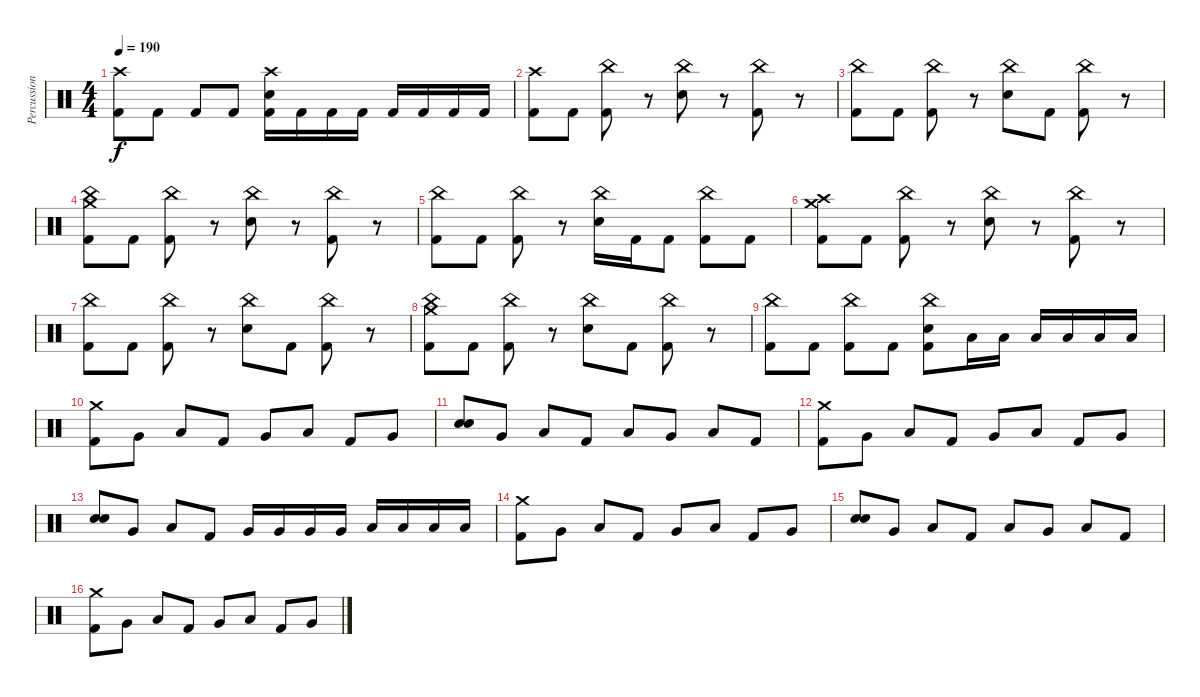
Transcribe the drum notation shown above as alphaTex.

\track ("Percussion" "Percussion") {instrument percussion}
\staff {score}
\articulation defaults
\ts (4 4)
\tempo 190
\clef neutral
\ks c
("Crash high (hit)" "Kick (hit) 2").8{dy f} "Kick (hit) 2".8 "Kick (hit) 2".8 "Kick (hit) 2".8 ("Crash high (hit)" "Electric Snare (hit)" "Kick (hit) 2").16 "Kick (hit) 2".16 "Kick (hit) 2".16 "Kick (hit) 2".16 "Kick (hit) 2".16 "Kick (hit) 2".16 "Kick (hit) 2".16 "Kick (hit) 2".16 |
("Crash high (hit)" "Kick (hit) 2").8 "Kick (hit) 2".8 ("China (hit)" "Kick (hit) 2").8 r.8 ("China (hit)" "Electric Snare (hit)").8 r.8 ("China (hit)" "Kick (hit) 2").8 r.8 |
("China (hit)" "Kick (hit) 2").8 "Kick (hit) 2".8 ("China (hit)" "Kick (hit) 2").8 r.8 ("China (hit)" "Electric Snare (hit)").8 "Kick (hit) 2".8 ("China (hit)" "Kick (hit) 2").8 r.8 |
("China (hit)" "Crash medium (hit)" "Kick (hit) 2").8 "Kick (hit) 2".8 ("China (hit)" "Kick (hit) 2").8 r.8 ("China (hit)" "Electric Snare (hit)").8 r.8 ("China (hit)" "Kick (hit) 2").8 r.8 |
("China (hit)" "Kick (hit) 2").8 "Kick (hit) 2".8 ("China (hit)" "Kick (hit) 2").8 r.8 ("China (hit)" "Electric Snare (hit)").16 "Kick (hit) 2".16 "Kick (hit) 2".8 ("China (hit)" "Kick (hit) 2").8 "Kick (hit) 2".8 |
("Crash high (hit)" "Crash medium (hit)" "Kick (hit) 2").8 "Kick (hit) 2".8 ("China (hit)" "Kick (hit) 2").8 r.8 ("China (hit)" "Electric Snare (hit)").8 r.8 ("China (hit)" "Kick (hit) 2").8 r.8 |
("China (hit)" "Kick (hit) 2").8 "Kick (hit) 2".8 ("China (hit)" "Kick (hit) 2").8 r.8 ("China (hit)" "Electric Snare (hit)").8 "Kick (hit) 2".8 ("China (hit)" "Kick (hit) 2").8 r.8 |
("China (hit)" "Crash medium (hit)" "Kick (hit) 2").8 "Kick (hit) 2".8 ("China (hit)" "Kick (hit) 2").8 r.8 ("China (hit)" "Electric Snare (hit)").8 "Kick (hit) 2".8 ("China (hit)" "Kick (hit) 2").8 r.8 |
("China (hit)" "Kick (hit) 2").8 "Kick (hit) 2".8 ("China (hit)" "Kick (hit) 2").8 "Kick (hit) 2".8 ("China (hit)" "Electric Snare (hit)" "Kick (hit) 2").8 "Low Tom (hit)".16 "Low Tom (hit)".16 "Low Tom (hit)".16 "Low Floor Tom (hit)".16 "Low Floor Tom (hit)".16 "Low Floor Tom (hit)".16 |
("Crash medium (hit)" "Kick (hit) 2").8 "Very Low Tom (hit)".8 "Low Floor Tom (hit)".8 "Kick (hit) 2".8 "Very Low Tom (hit)".8 "Low Floor Tom (hit)".8 "Kick (hit) 2".8 "Very Low Tom (hit)".8 |
("Electric Snare (hit)" "Snare (hit) 2").8 "Very Low Tom (hit)".8 "Low Floor Tom (hit)".8 "Kick (hit) 2".8 "Low Floor Tom (hit)".8 "Very Low Tom (hit)".8 "Low Floor Tom (hit)".8 "Kick (hit) 2".8 |
("Crash medium (hit)" "Kick (hit) 2").8 "Very Low Tom (hit)".8 "Low Floor Tom (hit)".8 "Kick (hit) 2".8 "Very Low Tom (hit)".8 "Low Floor Tom (hit)".8 "Kick (hit) 2".8 "Very Low Tom (hit)".8 |
("Electric Snare (hit)" "Snare (hit) 2").8 "Very Low Tom (hit)".8 "Low Floor Tom (hit)".8 "Kick (hit) 2".8 "Very Low Tom (hit)".16 "Very Low Tom (hit)".16 "Very Low Tom (hit)".16 "Very Low Tom (hit)".16 "Low Floor Tom (hit)".16 "Low Floor Tom (hit)".16 "Low Floor Tom (hit)".16 "Low Floor Tom (hit)".16 |
("Crash medium (hit)" "Kick (hit) 2").8 "Very Low Tom (hit)".8 "Low Floor Tom (hit)".8 "Kick (hit) 2".8 "Very Low Tom (hit)".8 "Low Floor Tom (hit)".8 "Kick (hit) 2".8 "Very Low Tom (hit)".8 |
("Electric Snare (hit)" "Snare (hit) 2").8 "Very Low Tom (hit)".8 "Low Floor Tom (hit)".8 "Kick (hit) 2".8 "Low Floor Tom (hit)".8 "Very Low Tom (hit)".8 "Low Floor Tom (hit)".8 "Kick (hit) 2".8 |
("Crash medium (hit)" "Kick (hit) 2").8 "Very Low Tom (hit)".8 "Low Floor Tom (hit)".8 "Kick (hit) 2".8 "Very Low Tom (hit)".8 "Low Floor Tom (hit)".8 "Kick (hit) 2".8 "Very Low Tom (hit)".8
